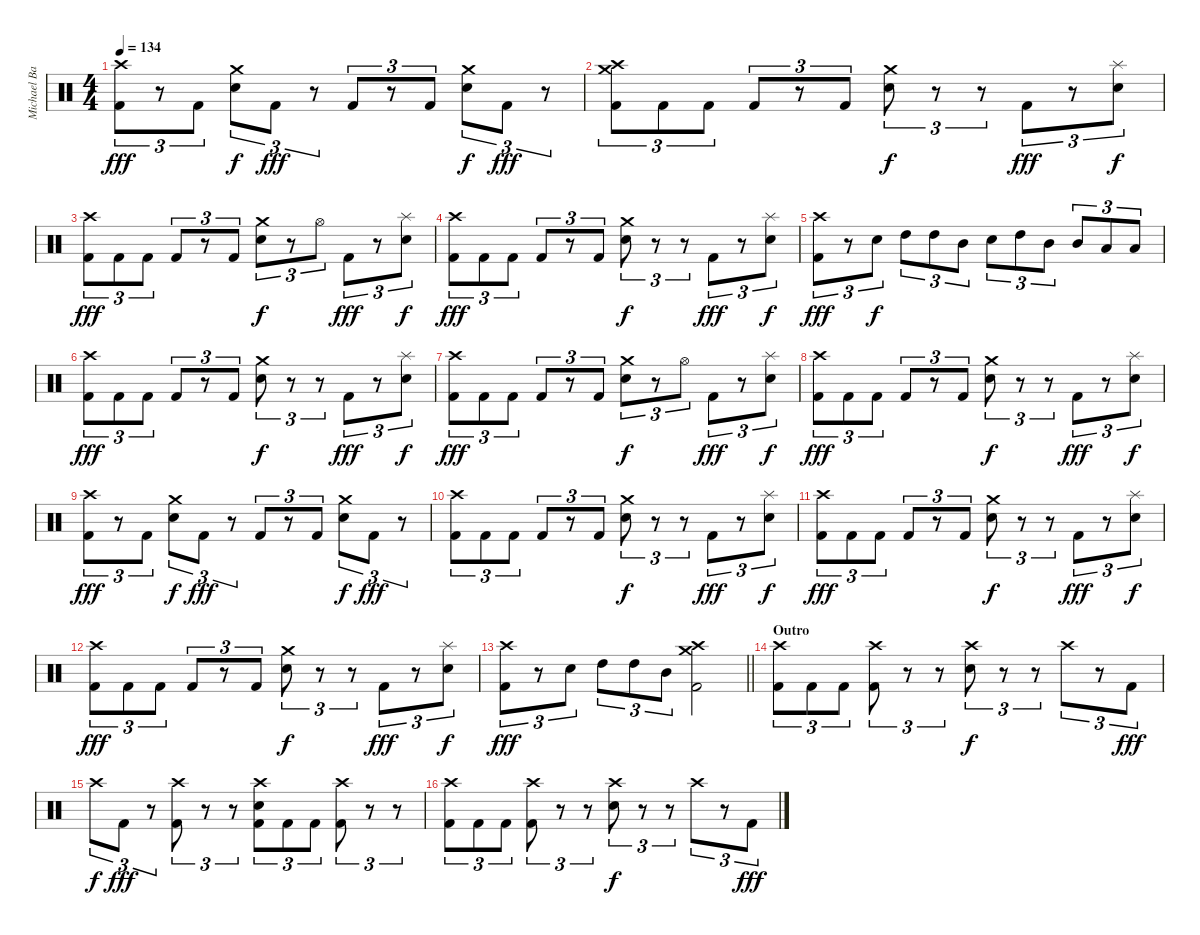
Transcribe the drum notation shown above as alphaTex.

\track ("Michael Bartlett " "Michael Ba") {instrument percussion}
\staff {score}
\articulation defaults
\ts (4 4)
\tempo 134
\clef neutral
\ks c
("Crash high (hit)" "Kick (hit) 2").8{tu (3 2) dy fff} r.8{tu (3 2)} "Kick (hit) 2".8{tu (3 2)} ("Crash medium (hit)" "Electric Snare (hit)").8{tu (3 2) dy f} "Kick (hit) 2".8{tu (3 2) dy fff} r.8{tu (3 2)} "Kick (hit) 2".8{tu (3 2)} r.8{tu (3 2)} "Kick (hit) 2".8{tu (3 2)} ("Crash medium (hit)" "Electric Snare (hit)").8{tu (3 2) dy f} "Kick (hit) 2".8{tu (3 2) dy fff} r.8{tu (3 2)} |
("Crash high (hit)" "Crash medium (hit)" "Kick (hit) 2").8{tu (3 2)} "Kick (hit) 2".8{tu (3 2)} "Kick (hit) 2".8{tu (3 2)} "Kick (hit) 2".8{tu (3 2)} r.8{tu (3 2)} "Kick (hit) 2".8{tu (3 2)} ("Crash medium (hit)" "Electric Snare (hit)").8{tu (3 2) dy f} r.8{tu (3 2)} r.8{tu (3 2)} "Kick (hit) 2".8{tu (3 2) dy fff} r.8{tu (3 2)} ("Splash (hit)" "Electric Snare (hit)").8{tu (3 2) dy f} |
("Crash high (hit)" "Kick (hit) 2").8{tu (3 2) dy fff} "Kick (hit) 2".8{tu (3 2)} "Kick (hit) 2".8{tu (3 2)} "Kick (hit) 2".8{tu (3 2)} r.8{tu (3 2)} "Kick (hit) 2".8{tu (3 2)} ("Crash medium (hit)" "Electric Snare (hit)").8{tu (3 2) dy f} r.8{tu (3 2)} "Hi-Hat (open)".8{tu (3 2)} "Kick (hit) 2".8{tu (3 2) dy fff} r.8{tu (3 2)} ("Splash (hit)" "Electric Snare (hit)").8{tu (3 2) dy f} |
("Crash high (hit)" "Kick (hit) 2").8{tu (3 2) dy fff} "Kick (hit) 2".8{tu (3 2)} "Kick (hit) 2".8{tu (3 2)} "Kick (hit) 2".8{tu (3 2)} r.8{tu (3 2)} "Kick (hit) 2".8{tu (3 2)} ("Crash medium (hit)" "Electric Snare (hit)").8{tu (3 2) dy f} r.8{tu (3 2)} r.8{tu (3 2)} "Kick (hit) 2".8{tu (3 2) dy fff} r.8{tu (3 2)} ("Splash (hit)" "Electric Snare (hit)").8{tu (3 2) dy f} |
("Crash high (hit)" "Kick (hit) 2").8{tu (3 2) dy fff} r.8{tu (3 2)} "Electric Snare (hit)".8{tu (3 2) dy f} "High Tom (hit)".8{tu (3 2)} "High Tom (hit)".8{tu (3 2)} "Mid Tom (hit)".8{tu (3 2)} "Electric Snare (hit)".8{tu (3 2)} "High Tom (hit)".8{tu (3 2)} "Mid Tom (hit)".8{tu (3 2)} "Mid Tom (hit)".8{tu (3 2)} "Low Tom (hit)".8{tu (3 2)} "Low Tom (hit)".8{tu (3 2)} |
("Crash high (hit)" "Kick (hit) 2").8{tu (3 2) dy fff} "Kick (hit) 2".8{tu (3 2)} "Kick (hit) 2".8{tu (3 2)} "Kick (hit) 2".8{tu (3 2)} r.8{tu (3 2)} "Kick (hit) 2".8{tu (3 2)} ("Crash medium (hit)" "Electric Snare (hit)").8{tu (3 2) dy f} r.8{tu (3 2)} r.8{tu (3 2)} "Kick (hit) 2".8{tu (3 2) dy fff} r.8{tu (3 2)} ("Splash (hit)" "Electric Snare (hit)").8{tu (3 2) dy f} |
("Crash high (hit)" "Kick (hit) 2").8{tu (3 2) dy fff} "Kick (hit) 2".8{tu (3 2)} "Kick (hit) 2".8{tu (3 2)} "Kick (hit) 2".8{tu (3 2)} r.8{tu (3 2)} "Kick (hit) 2".8{tu (3 2)} ("Crash medium (hit)" "Electric Snare (hit)").8{tu (3 2) dy f} r.8{tu (3 2)} "Hi-Hat (open)".8{tu (3 2)} "Kick (hit) 2".8{tu (3 2) dy fff} r.8{tu (3 2)} ("Splash (hit)" "Electric Snare (hit)").8{tu (3 2) dy f} |
("Crash high (hit)" "Kick (hit) 2").8{tu (3 2) dy fff} "Kick (hit) 2".8{tu (3 2)} "Kick (hit) 2".8{tu (3 2)} "Kick (hit) 2".8{tu (3 2)} r.8{tu (3 2)} "Kick (hit) 2".8{tu (3 2)} ("Crash medium (hit)" "Electric Snare (hit)").8{tu (3 2) dy f} r.8{tu (3 2)} r.8{tu (3 2)} "Kick (hit) 2".8{tu (3 2) dy fff} r.8{tu (3 2)} ("Splash (hit)" "Electric Snare (hit)").8{tu (3 2) dy f} |
("Crash high (hit)" "Kick (hit) 2").8{tu (3 2) dy fff} r.8{tu (3 2)} "Kick (hit) 2".8{tu (3 2)} ("Crash medium (hit)" "Electric Snare (hit)").8{tu (3 2) dy f} "Kick (hit) 2".8{tu (3 2) dy fff} r.8{tu (3 2)} "Kick (hit) 2".8{tu (3 2)} r.8{tu (3 2)} "Kick (hit) 2".8{tu (3 2)} ("Crash medium (hit)" "Electric Snare (hit)").8{tu (3 2) dy f} "Kick (hit) 2".8{tu (3 2) dy fff} r.8{tu (3 2)} |
("Crash high (hit)" "Kick (hit) 2").8{tu (3 2)} "Kick (hit) 2".8{tu (3 2)} "Kick (hit) 2".8{tu (3 2)} "Kick (hit) 2".8{tu (3 2)} r.8{tu (3 2)} "Kick (hit) 2".8{tu (3 2)} ("Crash medium (hit)" "Electric Snare (hit)").8{tu (3 2) dy f} r.8{tu (3 2)} r.8{tu (3 2)} "Kick (hit) 2".8{tu (3 2) dy fff} r.8{tu (3 2)} ("Splash (hit)" "Electric Snare (hit)").8{tu (3 2) dy f} |
("Crash high (hit)" "Kick (hit) 2").8{tu (3 2) dy fff} "Kick (hit) 2".8{tu (3 2)} "Kick (hit) 2".8{tu (3 2)} "Kick (hit) 2".8{tu (3 2)} r.8{tu (3 2)} "Kick (hit) 2".8{tu (3 2)} ("Crash medium (hit)" "Electric Snare (hit)").8{tu (3 2) dy f} r.8{tu (3 2)} r.8{tu (3 2)} "Kick (hit) 2".8{tu (3 2) dy fff} r.8{tu (3 2)} ("Splash (hit)" "Electric Snare (hit)").8{tu (3 2) dy f} |
("Crash high (hit)" "Kick (hit) 2").8{tu (3 2) dy fff} "Kick (hit) 2".8{tu (3 2)} "Kick (hit) 2".8{tu (3 2)} "Kick (hit) 2".8{tu (3 2)} r.8{tu (3 2)} "Kick (hit) 2".8{tu (3 2)} ("Crash medium (hit)" "Electric Snare (hit)").8{tu (3 2) dy f} r.8{tu (3 2)} r.8{tu (3 2)} "Kick (hit) 2".8{tu (3 2) dy fff} r.8{tu (3 2)} ("Splash (hit)" "Electric Snare (hit)").8{tu (3 2) dy f} |
\barLineRight lightlight
("Crash high (hit)" "Kick (hit) 2").8{tu (3 2) dy fff} r.8{tu (3 2)} "Electric Snare (hit)".8{tu (3 2)} "High Tom (hit)".8{tu (3 2)} "High Tom (hit)".8{tu (3 2)} "Mid Tom (hit)".8{tu (3 2)} ("Crash medium (hit)" "Crash high (hit)" "Kick (hit) 2").2 |
\section ("" "Outro")
("Crash high (hit)" "Kick (hit) 2").8{tu (3 2)} "Kick (hit) 2".8{tu (3 2)} "Kick (hit) 2".8{tu (3 2)} ("Crash high (hit)" "Kick (hit) 2").8{tu (3 2)} r.8{tu (3 2)} r.8{tu (3 2)} ("Crash high (hit)" "Electric Snare (hit)").8{tu (3 2) dy f} r.8{tu (3 2)} r.8{tu (3 2)} "Crash high (hit)".8{tu (3 2)} r.8{tu (3 2)} "Kick (hit) 2".8{tu (3 2) dy fff} |
"Crash high (hit)".8{tu (3 2) dy f} "Kick (hit) 2".8{tu (3 2) dy fff} r.8{tu (3 2)} ("Crash high (hit)" "Kick (hit) 2").8{tu (3 2)} r.8{tu (3 2)} r.8{tu (3 2)} ("Crash high (hit)" "Electric Snare (hit)" "Kick (hit) 2").8{tu (3 2)} "Kick (hit) 2".8{tu (3 2)} "Kick (hit) 2".8{tu (3 2)} ("Crash high (hit)" "Kick (hit) 2").8{tu (3 2)} r.8{tu (3 2)} r.8{tu (3 2)} |
("Crash high (hit)" "Kick (hit) 2").8{tu (3 2)} "Kick (hit) 2".8{tu (3 2)} "Kick (hit) 2".8{tu (3 2)} ("Crash high (hit)" "Kick (hit) 2").8{tu (3 2)} r.8{tu (3 2)} r.8{tu (3 2)} ("Crash high (hit)" "Electric Snare (hit)").8{tu (3 2) dy f} r.8{tu (3 2)} r.8{tu (3 2)} "Crash high (hit)".8{tu (3 2)} r.8{tu (3 2)} "Kick (hit) 2".8{tu (3 2) dy fff}
